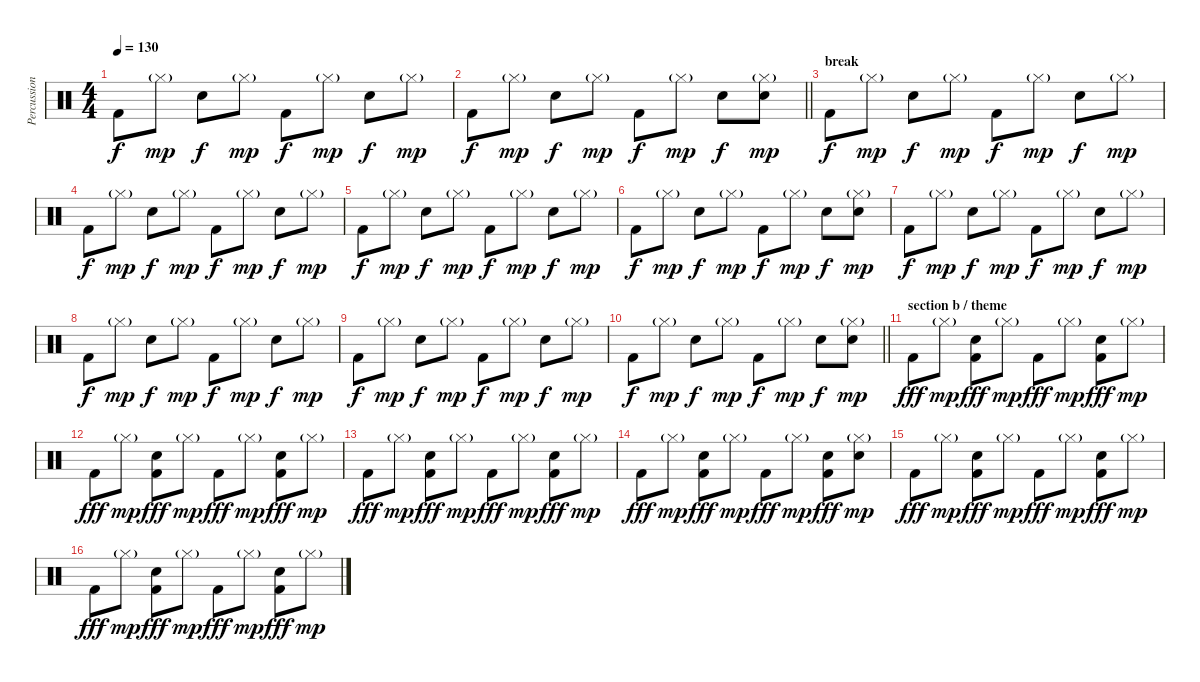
\track ("Percussion" "Percussion") {instrument percussion}
\staff {score}
\articulation defaults
\ts (4 4)
\tempo 130
\clef neutral
\ks c "Kick (hit) 2".8{dy f} "Hi-Hat (closed)"{g}.8{dy mp} "Electric Snare (hit)".8{dy f} "Hi-Hat (closed)"{g}.8{dy mp} "Kick (hit) 2".8{dy f} "Hi-Hat (closed)"{g}.8{dy mp} "Electric Snare (hit)".8{dy f} "Hi-Hat (closed)"{g}.8{dy mp}
|
\barLineRight lightlight "Kick (hit) 2".8{dy f} "Hi-Hat (closed)"{g}.8{dy mp} "Electric Snare (hit)".8{dy f} "Hi-Hat (closed)"{g}.8{dy mp} "Kick (hit) 2".8{dy f} "Hi-Hat (closed)"{g}.8{dy mp} "Electric Snare (hit)".8{dy f}
("Hi-Hat (closed)"{g} "Electric Snare (hit)").8{dy mp} |
\section ("" "break")
"Kick (hit) 2".8{dy f} "Hi-Hat (closed)"{g}.8{dy mp} "Electric Snare (hit)".8{dy f} "Hi-Hat (closed)"{g}.8{dy mp} "Kick (hit) 2".8{dy f} "Hi-Hat (closed)"{g}.8{dy mp} "Electric Snare (hit)".8{dy f} "Hi-Hat (closed)"{g}.8{dy mp} |
"Kick (hit) 2".8{dy f} "Hi-Hat (closed)"{g}.8{dy mp} "Electric Snare (hit)".8{dy f} "Hi-Hat (closed)"{g}.8{dy mp} "Kick (hit) 2".8{dy f} "Hi-Hat (closed)"{g}.8{dy mp} "Electric Snare (hit)".8{dy f} "Hi-Hat (closed)"{g}.8{dy mp} |
"Kick (hit) 2".8{dy f} "Hi-Hat (closed)"{g}.8{dy mp} "Electric Snare (hit)".8{dy f} "Hi-Hat (closed)"{g}.8{dy mp} "Kick (hit) 2".8{dy f} "Hi-Hat (closed)"{g}.8{dy mp} "Electric Snare (hit)".8{dy f} "Hi-Hat (closed)"{g}.8{dy mp} |
"Kick (hit) 2".8{dy f} "Hi-Hat (closed)"{g}.8{dy mp} "Electric Snare (hit)".8{dy f} "Hi-Hat (closed)"{g}.8{dy mp} "Kick (hit) 2".8{dy f} "Hi-Hat (closed)"{g}.8{dy mp} "Electric Snare (hit)".8{dy f} ("Hi-Hat (closed)"{g} "Electric Snare (hit)").8{dy mp} |
"Kick (hit) 2".8{dy f} "Hi-Hat (closed)"{g}.8{dy mp} "Electric Snare (hit)".8{dy f} "Hi-Hat (closed)"{g}.8{dy mp} "Kick (hit) 2".8{dy f} "Hi-Hat (closed)"{g}.8{dy mp} "Electric Snare (hit)".8{dy f} "Hi-Hat (closed)"{g}.8{dy mp} |
"Kick (hit) 2".8{dy f} "Hi-Hat (closed)"{g}.8{dy mp} "Electric Snare (hit)".8{dy f} "Hi-Hat (closed)"{g}.8{dy mp} "Kick (hit) 2".8{dy f} "Hi-Hat (closed)"{g}.8{dy mp} "Electric Snare (hit)".8{dy f} "Hi-Hat (closed)"{g}.8{dy mp} |
"Kick (hit) 2".8{dy f} "Hi-Hat (closed)"{g}.8{dy mp} "Electric Snare (hit)".8{dy f} "Hi-Hat (closed)"{g}.8{dy mp} "Kick (hit) 2".8{dy f} "Hi-Hat (closed)"{g}.8{dy mp} "Electric Snare (hit)".8{dy f} "Hi-Hat (closed)"{g}.8{dy mp} |
\barLineRight lightlight "Kick (hit) 2".8{dy f} "Hi-Hat (closed)"{g}.8{dy mp} "Electric Snare (hit)".8{dy f} "Hi-Hat (closed)"{g}.8{dy mp} "Kick (hit) 2".8{dy f} "Hi-Hat (closed)"{g}.8{dy mp} "Electric Snare (hit)".8{dy f}
("Hi-Hat (closed)"{g} "Electric Snare (hit)").8{dy mp} |
\section ("" "section b / theme")
"Kick (hit) 2".8{dy fff} "Hi-Hat (closed)"{g}.8{dy mp} ("Electric Snare (hit)" "Kick (hit) 2").8{dy fff} "Hi-Hat (closed)"{g}.8{dy mp} "Kick (hit) 2".8{dy fff} "Hi-Hat (closed)"{g}.8{dy mp} ("Electric Snare (hit)" "Kick (hit) 2").8{dy fff} "Hi-Hat (closed)"{g}.8{dy mp} |
"Kick (hit) 2".8{dy fff} "Hi-Hat (closed)"{g}.8{dy mp} ("Electric Snare (hit)" "Kick (hit) 2").8{dy fff} "Hi-Hat (closed)"{g}.8{dy mp} "Kick (hit) 2".8{dy fff} "Hi-Hat (closed)"{g}.8{dy mp} ("Electric Snare (hit)" "Kick (hit) 2").8{dy fff} "Hi-Hat (closed)"{g}.8{dy mp} |
"Kick (hit) 2".8{dy fff} "Hi-Hat (closed)"{g}.8{dy mp} ("Electric Snare (hit)" "Kick (hit) 2").8{dy fff} "Hi-Hat (closed)"{g}.8{dy mp} "Kick (hit) 2".8{dy fff} "Hi-Hat (closed)"{g}.8{dy mp} ("Electric Snare (hit)" "Kick (hit) 2").8{dy fff} "Hi-Hat (closed)"{g}.8{dy mp} |
"Kick (hit) 2".8{dy fff} "Hi-Hat (closed)"{g}.8{dy mp} ("Electric Snare (hit)" "Kick (hit) 2").8{dy fff} "Hi-Hat (closed)"{g}.8{dy mp} "Kick (hit) 2".8{dy fff} "Hi-Hat (closed)"{g}.8{dy mp} ("Electric Snare (hit)" "Kick (hit) 2").8{dy fff} ("Hi-Hat (closed)"{g} "Electric Snare (hit)").8{dy mp} |
"Kick (hit) 2".8{dy fff} "Hi-Hat (closed)"{g}.8{dy mp} ("Electric Snare (hit)" "Kick (hit) 2").8{dy fff} "Hi-Hat (closed)"{g}.8{dy mp} "Kick (hit) 2".8{dy fff} "Hi-Hat (closed)"{g}.8{dy mp} ("Electric Snare (hit)" "Kick (hit) 2").8{dy fff} "Hi-Hat (closed)"{g}.8{dy mp} |
"Kick (hit) 2".8{dy fff} "Hi-Hat (closed)"{g}.8{dy mp} ("Electric Snare (hit)" "Kick (hit) 2").8{dy fff} "Hi-Hat (closed)"{g}.8{dy mp} "Kick (hit) 2".8{dy fff} "Hi-Hat (closed)"{g}.8{dy mp} ("Electric Snare (hit)" "Kick (hit) 2").8{dy fff} "Hi-Hat (closed)"{g}.8{dy mp}
